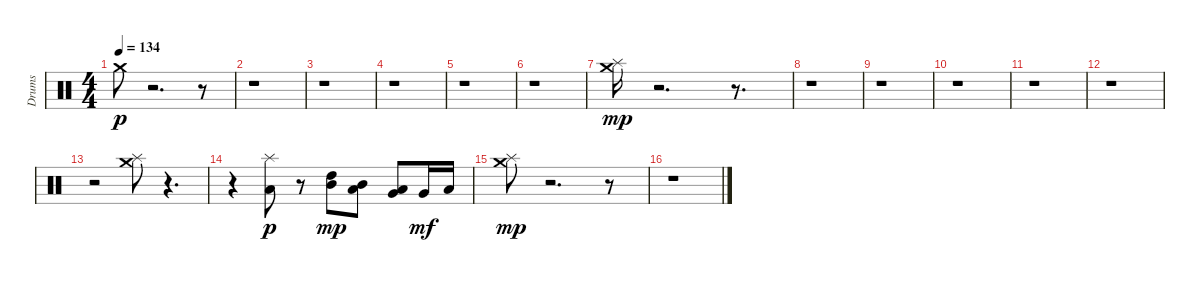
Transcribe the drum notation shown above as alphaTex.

\track ("Drums" "Drums") {instrument percussion}
\staff {score}
\articulation defaults
\ts (4 4)
\tempo 134
\clef neutral
\ks c "Crash medium (hit)".8{dy p}
r.2{d} r.8 |
r.1 |
r.1 |
r.1 |
r.1 |
r.1 |
("Crash medium (hit)" "Splash (hit)").16{dy mp} r.2{d} r.8{d} |
r.1 |
r.1 |
r.1 |
r.1 |
r.1 |
r.2 ("Crash medium (hit)" "Splash (hit)").8 r.4{d} |
r.4 ("Splash (hit)" "Low Floor Tom (hit)").8{dy p} r.8 ("High Tom (hit)" "Mid Tom (hit)").8{dy mp} ("Mid Tom (hit)" "Low Tom (hit)").8 ("Low Tom (hit)" "Very Low Tom (hit)").8 "Very Low Tom (hit)".16{dy mf} "Low Floor Tom (hit)".16 |
("Crash medium (hit)" "Splash (hit)").8{dy mp} r.2{d} r.8 |
r.1
